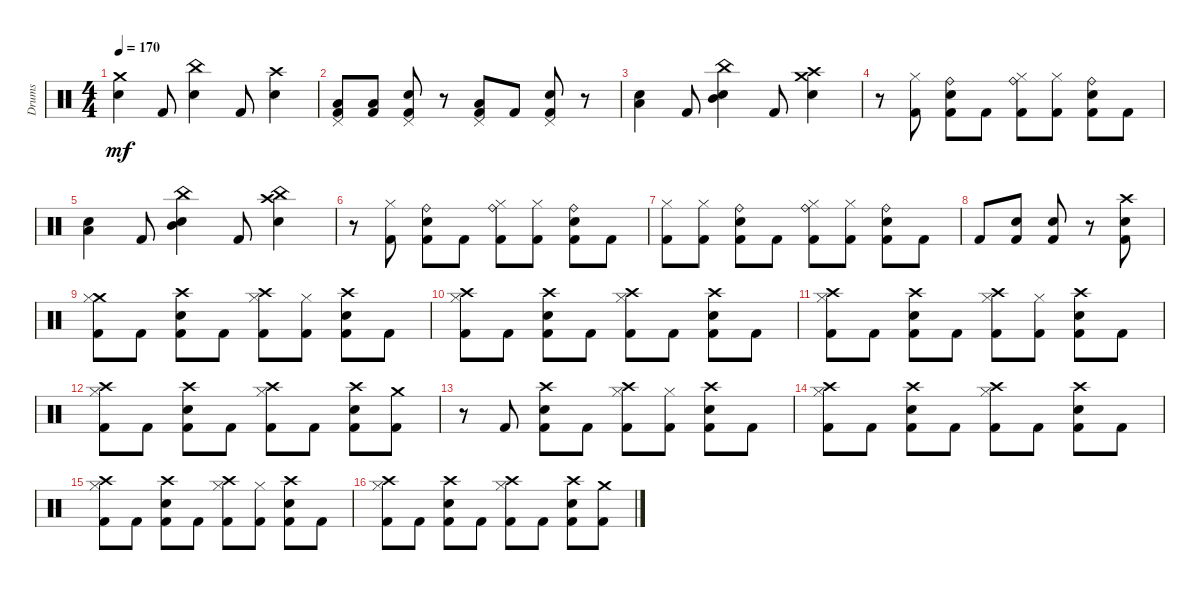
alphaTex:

\track ("Drums" "Drums") {instrument percussion}
\staff {score}
\articulation defaults
\ts (4 4)
\tempo 170
\clef neutral
\ks c
("Crash medium (hit)" "Electric Snare (hit)").4{dy mf} "Kick (hit) 2".8 ("China (hit)" "Electric Snare (hit)").4 "Kick (hit) 2".8 ("Crash high (hit)" "Electric Snare (hit)").4 |
("Pedal Hi-Hat (hit)" "Low Tom (hit)" "Kick (hit) 2").8 ("Low Tom (hit)" "Kick (hit) 2").8 ("Pedal Hi-Hat (hit)" "Electric Snare (hit)" "Kick (hit) 2").8 r.8 ("Pedal Hi-Hat (hit)" "Low Tom (hit)" "Kick (hit) 2").8 "Kick (hit) 2".8 ("Pedal Hi-Hat (hit)" "Electric Snare (hit)" "Kick (hit) 2").8 r.8 |
("Low Tom (hit)" "Electric Snare (hit)").4 "Kick (hit) 2".8 ("Mid Tom (hit)" "China (hit)" "Electric Snare (hit)").4 "Kick (hit) 2".8 ("Crash high (hit)" "Crash medium (hit)" "Electric Snare (hit)").4 |
r.8 ("Hi-Hat (closed)" "Kick (hit) 2").8 ("Ride (bell)" "Electric Snare (hit)" "Kick (hit) 2").8 "Kick (hit) 2".8 ("Ride (bell)" "Hi-Hat (closed)" "Kick (hit) 2").8 ("Hi-Hat (closed)" "Kick (hit) 2").8 ("Ride (bell)" "Electric Snare (hit)" "Kick (hit) 2").8 "Kick (hit) 2".8 |
("Low Tom (hit)" "Electric Snare (hit)").4 "Kick (hit) 2".8 ("Mid Tom (hit)" "China (hit)" "Electric Snare (hit)").4 "Kick (hit) 2".8 ("Crash high (hit)" "China (hit)" "Electric Snare (hit)").4 |
r.8 ("Hi-Hat (closed)" "Kick (hit) 2").8 ("Ride (bell)" "Electric Snare (hit)" "Kick (hit) 2").8 "Kick (hit) 2".8 ("Ride (bell)" "Hi-Hat (closed)" "Kick (hit) 2").8 ("Hi-Hat (closed)" "Kick (hit) 2").8 ("Ride (bell)" "Electric Snare (hit)" "Kick (hit) 2").8 "Kick (hit) 2".8 |
("Hi-Hat (closed)" "Kick (hit) 2").8 ("Hi-Hat (closed)" "Kick (hit) 2").8 ("Ride (bell)" "Electric Snare (hit)" "Kick (hit) 2").8 "Kick (hit) 2".8 ("Ride (bell)" "Hi-Hat (closed)" "Kick (hit) 2").8 ("Hi-Hat (closed)" "Kick (hit) 2").8 ("Ride (bell)" "Electric Snare (hit)" "Kick (hit) 2").8 "Kick (hit) 2".8 |
"Kick (hit) 2".8 ("Electric Snare (hit)" "Kick (hit) 2").8 ("Electric Snare (hit)" "Kick (hit) 2").8 r.8 ("Crash high (hit)" "Electric Snare (hit)" "Kick (hit) 2").8 |
("Crash medium (hit)" "Hi-Hat (closed)" "Kick (hit) 2").8 "Kick (hit) 2".8 ("Crash high (hit)" "Electric Snare (hit)" "Kick (hit) 2").8 "Kick (hit) 2".8 ("Crash high (hit)" "Hi-Hat (closed)" "Kick (hit) 2").8 ("Hi-Hat (closed)" "Kick (hit) 2").8 ("Crash high (hit)" "Electric Snare (hit)" "Kick (hit) 2").8 "Kick (hit) 2".8 |
("Crash high (hit)" "Hi-Hat (closed)" "Kick (hit) 2").8 "Kick (hit) 2".8 ("Crash high (hit)" "Electric Snare (hit)" "Kick (hit) 2").8 "Kick (hit) 2".8 ("Crash high (hit)" "Hi-Hat (closed)" "Kick (hit) 2").8 "Kick (hit) 2".8 ("Crash high (hit)" "Electric Snare (hit)" "Kick (hit) 2").8 "Kick (hit) 2".8 |
("Crash high (hit)" "Hi-Hat (closed)" "Kick (hit) 2").8 "Kick (hit) 2".8 ("Crash high (hit)" "Electric Snare (hit)" "Kick (hit) 2").8 "Kick (hit) 2".8 ("Crash high (hit)" "Hi-Hat (closed)" "Kick (hit) 2").8 ("Hi-Hat (closed)" "Kick (hit) 2").8 ("Crash high (hit)" "Electric Snare (hit)" "Kick (hit) 2").8 "Kick (hit) 2".8 |
("Crash high (hit)" "Hi-Hat (closed)" "Kick (hit) 2").8 "Kick (hit) 2".8 ("Crash high (hit)" "Electric Snare (hit)" "Kick (hit) 2").8 "Kick (hit) 2".8 ("Crash high (hit)" "Hi-Hat (closed)" "Kick (hit) 2").8 "Kick (hit) 2".8 ("Crash high (hit)" "Electric Snare (hit)" "Kick (hit) 2").8 ("Crash medium (hit)" "Kick (hit) 2").8 |
r.8 "Kick (hit) 2".8 ("Crash high (hit)" "Electric Snare (hit)" "Kick (hit) 2").8 "Kick (hit) 2".8 ("Crash high (hit)" "Hi-Hat (closed)" "Kick (hit) 2").8 ("Hi-Hat (closed)" "Kick (hit) 2").8 ("Crash high (hit)" "Electric Snare (hit)" "Kick (hit) 2").8 "Kick (hit) 2".8 |
("Crash high (hit)" "Hi-Hat (closed)" "Kick (hit) 2").8 "Kick (hit) 2".8 ("Crash high (hit)" "Electric Snare (hit)" "Kick (hit) 2").8 "Kick (hit) 2".8 ("Crash high (hit)" "Hi-Hat (closed)" "Kick (hit) 2").8 "Kick (hit) 2".8 ("Crash high (hit)" "Electric Snare (hit)" "Kick (hit) 2").8 "Kick (hit) 2".8 |
("Crash high (hit)" "Hi-Hat (closed)" "Kick (hit) 2").8 "Kick (hit) 2".8 ("Crash high (hit)" "Electric Snare (hit)" "Kick (hit) 2").8 "Kick (hit) 2".8 ("Crash high (hit)" "Hi-Hat (closed)" "Kick (hit) 2").8 ("Hi-Hat (closed)" "Kick (hit) 2").8 ("Crash high (hit)" "Electric Snare (hit)" "Kick (hit) 2").8 "Kick (hit) 2".8 |
("Crash high (hit)" "Hi-Hat (closed)" "Kick (hit) 2").8 "Kick (hit) 2".8 ("Crash high (hit)" "Electric Snare (hit)" "Kick (hit) 2").8 "Kick (hit) 2".8 ("Crash high (hit)" "Hi-Hat (closed)" "Kick (hit) 2").8 "Kick (hit) 2".8 ("Crash high (hit)" "Electric Snare (hit)" "Kick (hit) 2").8 ("Crash medium (hit)" "Kick (hit) 2").8
